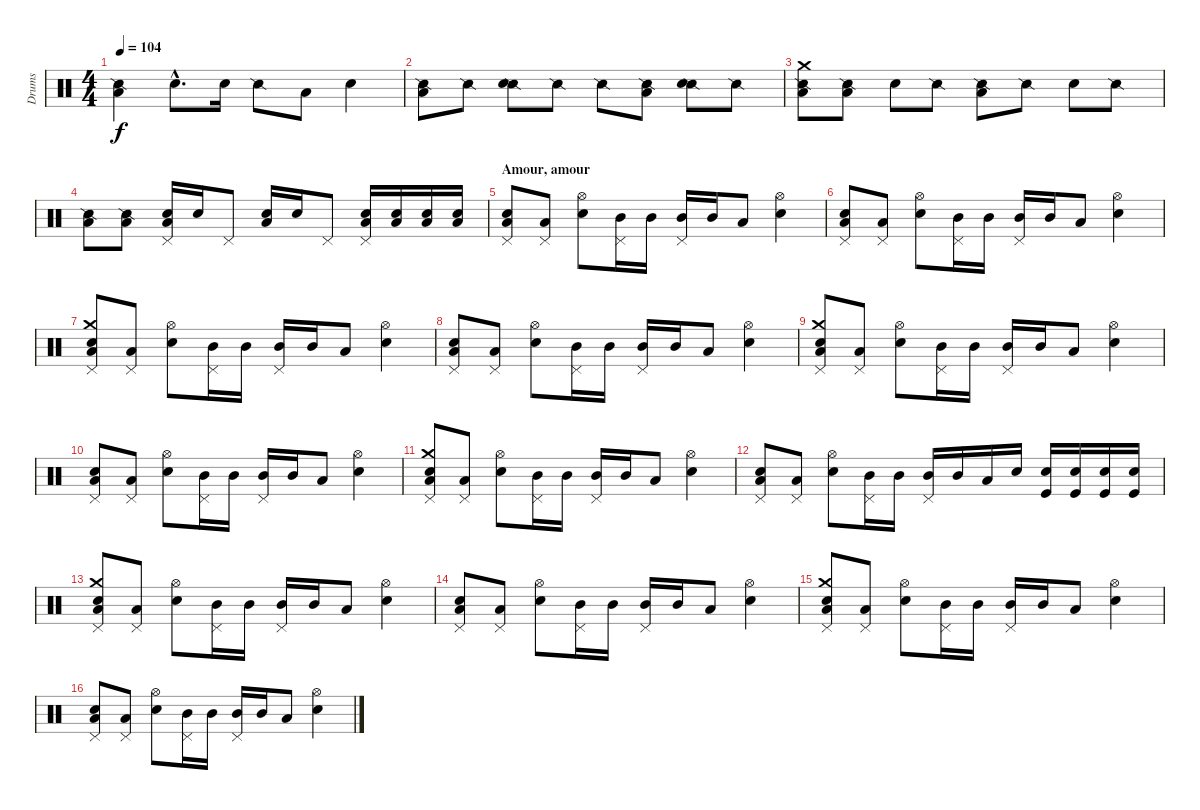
\track ("Drums" "Drums") {instrument percussion}
\staff {score}
\articulation defaults
\ts (4 4)
\tempo 104
\clef neutral
\ks c
("Snare (side stick) 2" "Low Floor Tom (hit)").4{dy f} "Snare (hit) 2"{hac}.8{d} "Snare (hit) 2".16 "Snare (side stick) 2".8 "Low Floor Tom (hit)".8 "Snare (hit) 2".4 |
("Snare (side stick) 2" "Low Floor Tom (hit)").8 "Snare (side stick) 2".8 ("Snare (side stick) 2" "Snare (hit) 2").8 "Snare (side stick) 2".8 "Snare (side stick) 2".8 ("Snare (side stick) 2" "Low Floor Tom (hit)").8 ("Snare (side stick) 2" "Snare (hit) 2").8 "Snare (side stick) 2".8 |
("Snare (side stick) 2" "Crash medium (hit)" "Low Floor Tom (hit)").8 ("Snare (side stick) 2" "Low Floor Tom (hit)").8 "Snare (hit) 2".8 "Snare (side stick) 2".8 ("Snare (side stick) 2" "Low Floor Tom (hit)").8 "Snare (side stick) 2".8 "Snare (hit) 2".8 "Snare (side stick) 2".8 |
("Snare (side stick) 2" "Low Floor Tom (hit)").8 ("Snare (side stick) 2" "Low Floor Tom (hit)").8 ("Electric Snare (hit)" "Pedal Hi-Hat (hit)" "Low Floor Tom (hit)").16 "Electric Snare (hit)".16 "Pedal Hi-Hat (hit)".8 ("Electric Snare (hit)" "Low Floor Tom (hit)").16 "Electric Snare (hit)".16 "Pedal Hi-Hat (hit)".8 ("Electric Snare (hit)" "Pedal Hi-Hat (hit)" "Low Floor Tom (hit)").16 ("Electric Snare (hit)" "Low Floor Tom (hit)").16 ("Electric Snare (hit)" "Low Floor Tom (hit)").16 ("Electric Snare (hit)" "Low Floor Tom (hit)").16 |
\section ("" "Amour, amour")
("Snare (hit) 2" "Pedal Hi-Hat (hit)" "Low Floor Tom (hit)").8 ("Pedal Hi-Hat (hit)" "Low Floor Tom (hit)").8 ("Snare (hit) 2" "Hi-Hat (open)").8 ("Mid Tom (hit)" "Pedal Hi-Hat (hit)").16 "Mid Tom (hit)".16 ("Mid Tom (hit)" "Pedal Hi-Hat (hit)").16 "Mid Tom (hit)".16 "Low Floor Tom (hit)".8 ("Snare (hit) 2" "Hi-Hat (open)").4 |
("Snare (hit) 2" "Pedal Hi-Hat (hit)" "Low Floor Tom (hit)").8 ("Pedal Hi-Hat (hit)" "Low Floor Tom (hit)").8 ("Snare (hit) 2" "Hi-Hat (open)").8 ("Mid Tom (hit)" "Pedal Hi-Hat (hit)").16 "Mid Tom (hit)".16 ("Mid Tom (hit)" "Pedal Hi-Hat (hit)").16 "Mid Tom (hit)".16 "Low Floor Tom (hit)".8 ("Snare (hit) 2" "Hi-Hat (open)").4 |
("Snare (hit) 2" "Crash medium (hit)" "Pedal Hi-Hat (hit)" "Low Floor Tom (hit)").8 ("Pedal Hi-Hat (hit)" "Low Floor Tom (hit)").8 ("Snare (hit) 2" "Hi-Hat (open)").8 ("Mid Tom (hit)" "Pedal Hi-Hat (hit)").16 "Mid Tom (hit)".16 ("Mid Tom (hit)" "Pedal Hi-Hat (hit)").16 "Mid Tom (hit)".16 "Low Floor Tom (hit)".8 ("Snare (hit) 2" "Hi-Hat (open)").4 |
("Snare (hit) 2" "Pedal Hi-Hat (hit)" "Low Floor Tom (hit)").8 ("Pedal Hi-Hat (hit)" "Low Floor Tom (hit)").8 ("Snare (hit) 2" "Hi-Hat (open)").8 ("Mid Tom (hit)" "Pedal Hi-Hat (hit)").16 "Mid Tom (hit)".16 ("Mid Tom (hit)" "Pedal Hi-Hat (hit)").16 "Mid Tom (hit)".16 "Low Floor Tom (hit)".8 ("Snare (hit) 2" "Hi-Hat (open)").4 |
("Snare (hit) 2" "Crash medium (hit)" "Pedal Hi-Hat (hit)" "Low Floor Tom (hit)").8 ("Pedal Hi-Hat (hit)" "Low Floor Tom (hit)").8 ("Snare (hit) 2" "Hi-Hat (open)").8 ("Mid Tom (hit)" "Pedal Hi-Hat (hit)").16 "Mid Tom (hit)".16 ("Mid Tom (hit)" "Pedal Hi-Hat (hit)").16 "Mid Tom (hit)".16 "Low Floor Tom (hit)".8 ("Snare (hit) 2" "Hi-Hat (open)").4 |
("Snare (hit) 2" "Pedal Hi-Hat (hit)" "Low Floor Tom (hit)").8 ("Pedal Hi-Hat (hit)" "Low Floor Tom (hit)").8 ("Snare (hit) 2" "Hi-Hat (open)").8 ("Mid Tom (hit)" "Pedal Hi-Hat (hit)").16 "Mid Tom (hit)".16 ("Mid Tom (hit)" "Pedal Hi-Hat (hit)").16 "Mid Tom (hit)".16 "Low Floor Tom (hit)".8 ("Snare (hit) 2" "Hi-Hat (open)").4 |
("Snare (hit) 2" "Crash medium (hit)" "Pedal Hi-Hat (hit)" "Low Floor Tom (hit)").8 ("Pedal Hi-Hat (hit)" "Low Floor Tom (hit)").8 ("Snare (hit) 2" "Hi-Hat (open)").8 ("Mid Tom (hit)" "Pedal Hi-Hat (hit)").16 "Mid Tom (hit)".16 ("Mid Tom (hit)" "Pedal Hi-Hat (hit)").16 "Mid Tom (hit)".16 "Low Floor Tom (hit)".8 ("Snare (hit) 2" "Hi-Hat (open)").4 |
("Snare (hit) 2" "Pedal Hi-Hat (hit)" "Low Floor Tom (hit)").8 ("Pedal Hi-Hat (hit)" "Low Floor Tom (hit)").8 ("Snare (hit) 2" "Hi-Hat (open)").8 ("Mid Tom (hit)" "Pedal Hi-Hat (hit)").16 "Mid Tom (hit)".16 ("Mid Tom (hit)" "Pedal Hi-Hat (hit)").16 "Mid Tom (hit)".16 "Low Floor Tom (hit)".16 "Snare (hit) 2".16 ("Snare (hit) 2" "Kick (hit)").16 ("Snare (hit) 2" "Kick (hit)").16 ("Snare (hit) 2" "Kick (hit)").16 ("Snare (hit) 2" "Kick (hit)").16 |
("Snare (hit) 2" "Crash medium (hit)" "Pedal Hi-Hat (hit)" "Low Floor Tom (hit)").8 ("Pedal Hi-Hat (hit)" "Low Floor Tom (hit)").8 ("Snare (hit) 2" "Hi-Hat (open)").8 ("Mid Tom (hit)" "Pedal Hi-Hat (hit)").16 "Mid Tom (hit)".16 ("Mid Tom (hit)" "Pedal Hi-Hat (hit)").16 "Mid Tom (hit)".16 "Low Floor Tom (hit)".8 ("Snare (hit) 2" "Hi-Hat (open)").4 |
("Snare (hit) 2" "Pedal Hi-Hat (hit)" "Low Floor Tom (hit)").8 ("Pedal Hi-Hat (hit)" "Low Floor Tom (hit)").8 ("Snare (hit) 2" "Hi-Hat (open)").8 ("Mid Tom (hit)" "Pedal Hi-Hat (hit)").16 "Mid Tom (hit)".16 ("Mid Tom (hit)" "Pedal Hi-Hat (hit)").16 "Mid Tom (hit)".16 "Low Floor Tom (hit)".8 ("Snare (hit) 2" "Hi-Hat (open)").4 |
("Snare (hit) 2" "Crash medium (hit)" "Pedal Hi-Hat (hit)" "Low Floor Tom (hit)").8 ("Pedal Hi-Hat (hit)" "Low Floor Tom (hit)").8 ("Snare (hit) 2" "Hi-Hat (open)").8 ("Mid Tom (hit)" "Pedal Hi-Hat (hit)").16 "Mid Tom (hit)".16 ("Mid Tom (hit)" "Pedal Hi-Hat (hit)").16 "Mid Tom (hit)".16 "Low Floor Tom (hit)".8 ("Snare (hit) 2" "Hi-Hat (open)").4 |
("Snare (hit) 2" "Pedal Hi-Hat (hit)" "Low Floor Tom (hit)").8 ("Pedal Hi-Hat (hit)" "Low Floor Tom (hit)").8 ("Snare (hit) 2" "Hi-Hat (open)").8 ("Mid Tom (hit)" "Pedal Hi-Hat (hit)").16 "Mid Tom (hit)".16 ("Mid Tom (hit)" "Pedal Hi-Hat (hit)").16 "Mid Tom (hit)".16 "Low Floor Tom (hit)".8 ("Snare (hit) 2" "Hi-Hat (open)").4
